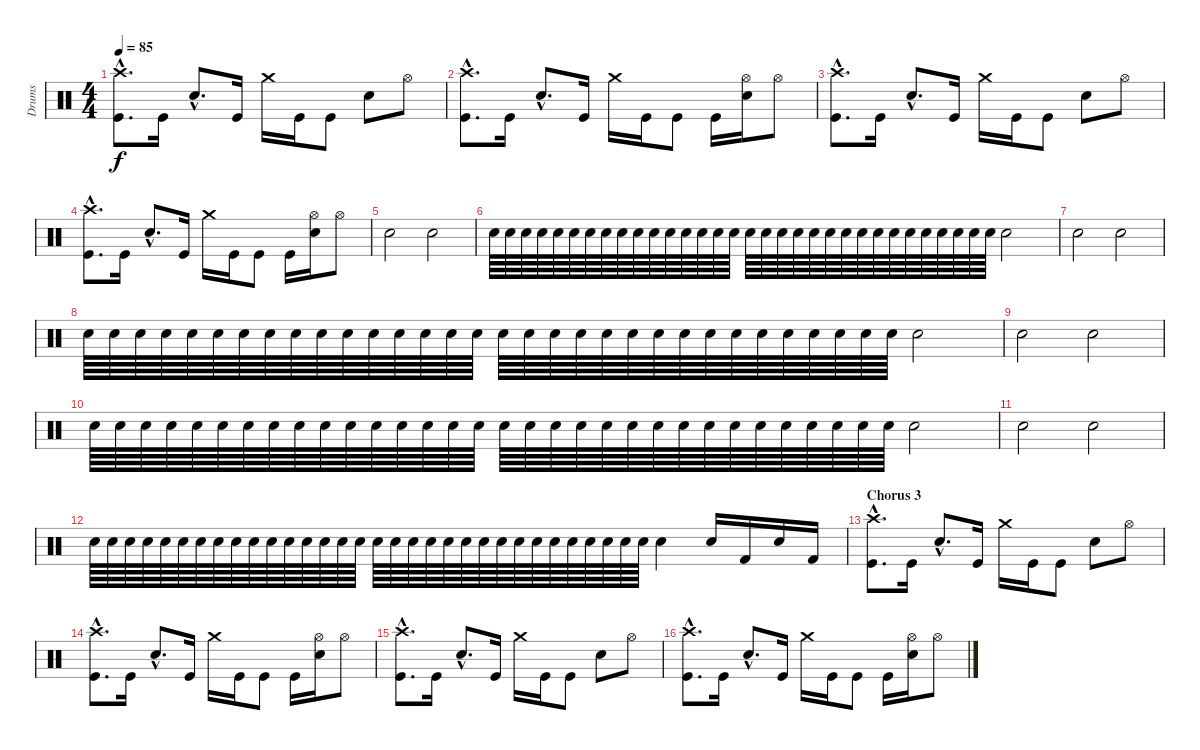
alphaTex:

\track ("Drums" "Drums") {instrument percussion}
\staff {score}
\articulation defaults
\ts (4 4)
\tempo 85
\clef neutral
\ks c
("Crash high (hit)"{hac} "Kick (hit)"{hac}).8{d dy f} "Kick (hit)".16 "Electric Snare (hit)"{hac}.8{d} "Kick (hit)".16 "Crash medium (hit)".16 "Kick (hit)".16 "Kick (hit)".8 "Electric Snare (hit)".8 "Hi-Hat (open)".8 |
("Crash high (hit)"{hac} "Kick (hit)"{hac}).8{d} "Kick (hit)".16 "Electric Snare (hit)"{hac}.8{d} "Kick (hit)".16 "Crash medium (hit)".16 "Kick (hit)".16 "Kick (hit)".8 "Kick (hit)".16 ("Hi-Hat (open)" "Electric Snare (hit)").16 "Hi-Hat (open)".8 |
("Crash high (hit)"{hac} "Kick (hit)"{hac}).8{d} "Kick (hit)".16 "Electric Snare (hit)"{hac}.8{d} "Kick (hit)".16 "Crash medium (hit)".16 "Kick (hit)".16 "Kick (hit)".8 "Electric Snare (hit)".8 "Hi-Hat (open)".8 |
("Crash high (hit)"{hac} "Kick (hit)"{hac}).8{d} "Kick (hit)".16 "Electric Snare (hit)"{hac}.8{d} "Kick (hit)".16 "Crash medium (hit)".16 "Kick (hit)".16 "Kick (hit)".8 "Kick (hit)".16 ("Hi-Hat (open)" "Electric Snare (hit)").16 "Hi-Hat (open)".8 |
"Snare (hit) 2".2 "Snare (hit) 2".2 |
"Snare (hit) 2".64 "Snare (hit) 2".64 "Snare (hit) 2".64 "Snare (hit) 2".64 "Snare (hit) 2".64 "Snare (hit) 2".64 "Snare (hit) 2".64 "Snare (hit) 2".64 "Snare (hit) 2".64 "Snare (hit) 2".64 "Snare (hit) 2".64 "Snare (hit) 2".64 "Snare (hit) 2".64 "Snare (hit) 2".64 "Snare (hit) 2".64 "Snare (hit) 2".64 "Snare (hit) 2".64 "Snare (hit) 2".64 "Snare (hit) 2".64 "Snare (hit) 2".64 "Snare (hit) 2".64 "Snare (hit) 2".64 "Snare (hit) 2".64 "Snare (hit) 2".64 "Snare (hit) 2".64 "Snare (hit) 2".64 "Snare (hit) 2".64 "Snare (hit) 2".64 "Snare (hit) 2".64 "Snare (hit) 2".64 "Snare (hit) 2".64 "Snare (hit) 2".64 "Snare (hit) 2".2 |
"Snare (hit) 2".2 "Snare (hit) 2".2 |
"Snare (hit) 2".64 "Snare (hit) 2".64 "Snare (hit) 2".64 "Snare (hit) 2".64 "Snare (hit) 2".64 "Snare (hit) 2".64 "Snare (hit) 2".64 "Snare (hit) 2".64 "Snare (hit) 2".64 "Snare (hit) 2".64 "Snare (hit) 2".64 "Snare (hit) 2".64 "Snare (hit) 2".64 "Snare (hit) 2".64 "Snare (hit) 2".64 "Snare (hit) 2".64 "Snare (hit) 2".64 "Snare (hit) 2".64 "Snare (hit) 2".64 "Snare (hit) 2".64 "Snare (hit) 2".64 "Snare (hit) 2".64 "Snare (hit) 2".64 "Snare (hit) 2".64 "Snare (hit) 2".64 "Snare (hit) 2".64 "Snare (hit) 2".64 "Snare (hit) 2".64 "Snare (hit) 2".64 "Snare (hit) 2".64 "Snare (hit) 2".64 "Snare (hit) 2".64 "Snare (hit) 2".2 |
"Snare (hit) 2".2 "Snare (hit) 2".2 |
"Snare (hit) 2".64 "Snare (hit) 2".64 "Snare (hit) 2".64 "Snare (hit) 2".64 "Snare (hit) 2".64 "Snare (hit) 2".64 "Snare (hit) 2".64 "Snare (hit) 2".64 "Snare (hit) 2".64 "Snare (hit) 2".64 "Snare (hit) 2".64 "Snare (hit) 2".64 "Snare (hit) 2".64 "Snare (hit) 2".64 "Snare (hit) 2".64 "Snare (hit) 2".64 "Snare (hit) 2".64 "Snare (hit) 2".64 "Snare (hit) 2".64 "Snare (hit) 2".64 "Snare (hit) 2".64 "Snare (hit) 2".64 "Snare (hit) 2".64 "Snare (hit) 2".64 "Snare (hit) 2".64 "Snare (hit) 2".64 "Snare (hit) 2".64 "Snare (hit) 2".64 "Snare (hit) 2".64 "Snare (hit) 2".64 "Snare (hit) 2".64 "Snare (hit) 2".64 "Snare (hit) 2".2 |
"Snare (hit) 2".2 "Snare (hit) 2".2 |
"Snare (hit) 2".64 "Snare (hit) 2".64 "Snare (hit) 2".64 "Snare (hit) 2".64 "Snare (hit) 2".64 "Snare (hit) 2".64 "Snare (hit) 2".64 "Snare (hit) 2".64 "Snare (hit) 2".64 "Snare (hit) 2".64 "Snare (hit) 2".64 "Snare (hit) 2".64 "Snare (hit) 2".64 "Snare (hit) 2".64 "Snare (hit) 2".64 "Snare (hit) 2".64 "Snare (hit) 2".64 "Snare (hit) 2".64 "Snare (hit) 2".64 "Snare (hit) 2".64 "Snare (hit) 2".64 "Snare (hit) 2".64 "Snare (hit) 2".64 "Snare (hit) 2".64 "Snare (hit) 2".64 "Snare (hit) 2".64 "Snare (hit) 2".64 "Snare (hit) 2".64 "Snare (hit) 2".64 "Snare (hit) 2".64 "Snare (hit) 2".64 "Snare (hit) 2".64 "Snare (hit) 2".4 "Snare (hit) 2".16 "Kick (hit) 2".16 "Snare (hit) 2".16 "Kick (hit) 2".16 |
\section ("" "Chorus 3")
("Crash high (hit)"{hac} "Kick (hit)"{hac}).8{d} "Kick (hit)".16 "Electric Snare (hit)"{hac}.8{d} "Kick (hit)".16 "Crash medium (hit)".16 "Kick (hit)".16 "Kick (hit)".8 "Electric Snare (hit)".8 "Hi-Hat (open)".8 |
("Crash high (hit)"{hac} "Kick (hit)"{hac}).8{d} "Kick (hit)".16 "Electric Snare (hit)"{hac}.8{d} "Kick (hit)".16 "Crash medium (hit)".16 "Kick (hit)".16 "Kick (hit)".8 "Kick (hit)".16 ("Hi-Hat (open)" "Electric Snare (hit)").16 "Hi-Hat (open)".8 |
("Crash high (hit)"{hac} "Kick (hit)"{hac}).8{d} "Kick (hit)".16 "Electric Snare (hit)"{hac}.8{d} "Kick (hit)".16 "Crash medium (hit)".16 "Kick (hit)".16 "Kick (hit)".8 "Electric Snare (hit)".8 "Hi-Hat (open)".8 |
("Crash high (hit)"{hac} "Kick (hit)"{hac}).8{d} "Kick (hit)".16 "Electric Snare (hit)"{hac}.8{d} "Kick (hit)".16 "Crash medium (hit)".16 "Kick (hit)".16 "Kick (hit)".8 "Kick (hit)".16 ("Hi-Hat (open)" "Electric Snare (hit)").16 "Hi-Hat (open)".8
